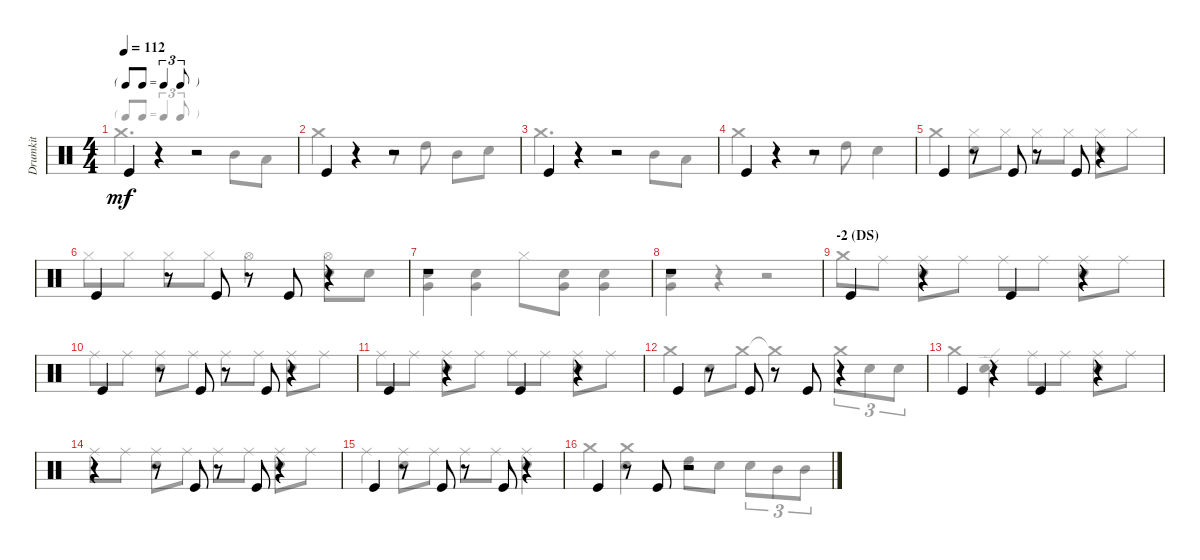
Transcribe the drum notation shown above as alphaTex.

\track ("Drumkit" "Drumkit") {instrument percussion}
\staff {score}
\articulation defaults
\voice
\ts (4 4)
\tf triplet8th
\section ("" "")
\tempo 112
\clef neutral
\ks c "Kick (hit)".4{dy mf}
r.4 r.2 |
"Kick (hit)".4 r.4 r.2 |
"Kick (hit)".4 r.4 r.2 |
"Kick (hit)".4 r.4 r.2 |
"Kick (hit)".4 r.8 "Kick (hit)".8 r.8 "Kick (hit)".8 r.4 |
"Kick (hit)".4 r.8 "Kick (hit)".8 r.8 "Kick (hit)".8 r.4 |
r.1 |
r.1 |
\section ("" "-2 (DS)")
"Kick (hit)".4 r.4 "Kick (hit)".4 r.4 |
"Kick (hit)".4 r.8 "Kick (hit)".8 r.8 "Kick (hit)".8 r.4 |
"Kick (hit)".4 r.4 "Kick (hit)".4 r.4 |
"Kick (hit)".4 r.8 "Kick (hit)".8 r.8 "Kick (hit)".8 r.4 |
"Kick (hit)".4 r.4 "Kick (hit)".4 r.4 |
r.4 r.8 "Kick (hit)".8 r.8 "Kick (hit)".8 r.4 |
"Kick (hit)".4 r.8 "Kick (hit)".8 r.8 "Kick (hit)".8 r.4 |
"Kick (hit)".4 r.8 "Kick (hit)".8 r.2
\voice
\clef neutral
\ottava regular
\simile none
\ks c "Crash medium (hit)".2{d dy mf} "Mid Tom (hit)".8 "Low Tom (hit)".8
|
"Crash medium (hit)".2 r.8 "High Tom (hit)".8 "Mid Tom (hit)".8 "Snare (hit) 2".8 |
"Crash medium (hit)".2{d} "Mid Tom (hit)".8 "Low Tom (hit)".8 |
"Crash medium (hit)".2 r.8 "High Tom (hit)".8 "Snare (hit) 2".4 |
"Crash medium (hit)".4 ("Hi-Hat (closed)" "Snare (hit) 2").8 "Hi-Hat (closed)".8 "Hi-Hat (closed)".8 "Hi-Hat (closed)".8 ("Hi-Hat (closed)" "Snare (hit) 2").8 "Hi-Hat (closed)".8 |
"Hi-Hat (closed)".8 "Hi-Hat (closed)".8 "Hi-Hat (closed)".8 "Hi-Hat (closed)".8 "Hi-Hat (open)".4 ("Hi-Hat (open)" "Snare (hit) 2").8 "Snare (hit) 2".8 |
("Snare (hit) 2" "Very Low Tom (hit)").4 ("Very Low Tom (hit)" "Snare (hit) 2").4 "Hi-Hat (closed)".8 ("Snare (hit) 2" "Very Low Tom (hit)").8 ("Very Low Tom (hit)" "Snare (hit) 2").4 |
("Snare (hit) 2" "Very Low Tom (hit)").4 r.4 r.2 |
"Crash medium (hit)".8 "Ride (middle)".8 ("Ride (middle)" "Snare (hit) 2").8 "Ride (middle)".8 "Ride (middle)".8 "Ride (middle)".8 ("Ride (middle)" "Snare (hit) 2").8 "Ride (middle)".8 |
"Ride (middle)".8 "Ride (middle)".8 ("Ride (middle)" "Snare (hit) 2").8 "Ride (middle)".8 "Ride (middle)".8 "Ride (middle)".8 ("Ride (middle)" "Snare (hit) 2").8 "Ride (middle)".8 |
"Ride (middle)".8 "Ride (middle)".8 ("Ride (middle)" "Snare (hit) 2").8 "Ride (middle)".8 "Ride (middle)".8 "Ride (middle)".8 ("Ride (middle)" "Snare (hit) 2").8 "Ride (middle)".8 |
"Crash medium (hit)".4 "Snare (hit) 2".8 "Crash medium (hit)".8 "Crash medium (hit)"{t}.4 "Crash medium (hit)".8{tu (3 2)} "Snare (hit) 2".8{tu (3 2)} "Snare (hit) 2".8{tu (3 2)} |
"Crash medium (hit)".4 ("Ride (edge) 2" "Snare (hit) 2").4 "Ride (middle)".8 "Ride (middle)".8 ("Ride (middle)" "Snare (hit) 2").8 "Ride (middle)".8 |
"Ride (middle)".8 "Ride (middle)".8 ("Ride (middle)" "Snare (hit) 2").8 "Ride (middle)".8 "Ride (middle)".8 "Ride (middle)".8 ("Ride (middle)" "Snare (hit) 2").8 "Ride (middle)".8 |
"Ride (middle)".4 ("Ride (middle)" "Snare (hit) 2").8 "Ride (middle)".8 "Ride (middle)".8 "Ride (middle)".8 ("Ride (middle)" "Snare (hit) 2").4 |
"Crash medium (hit)".4 ("Crash medium (hit)" "Snare (hit) 2").4 "High Tom (hit)".8 "Snare (hit) 2".8 "Snare (hit) 2".8{tu (3 2)} "Mid Tom (hit)".8{tu (3 2)} "Mid Tom (hit)".8{tu (3 2)}
